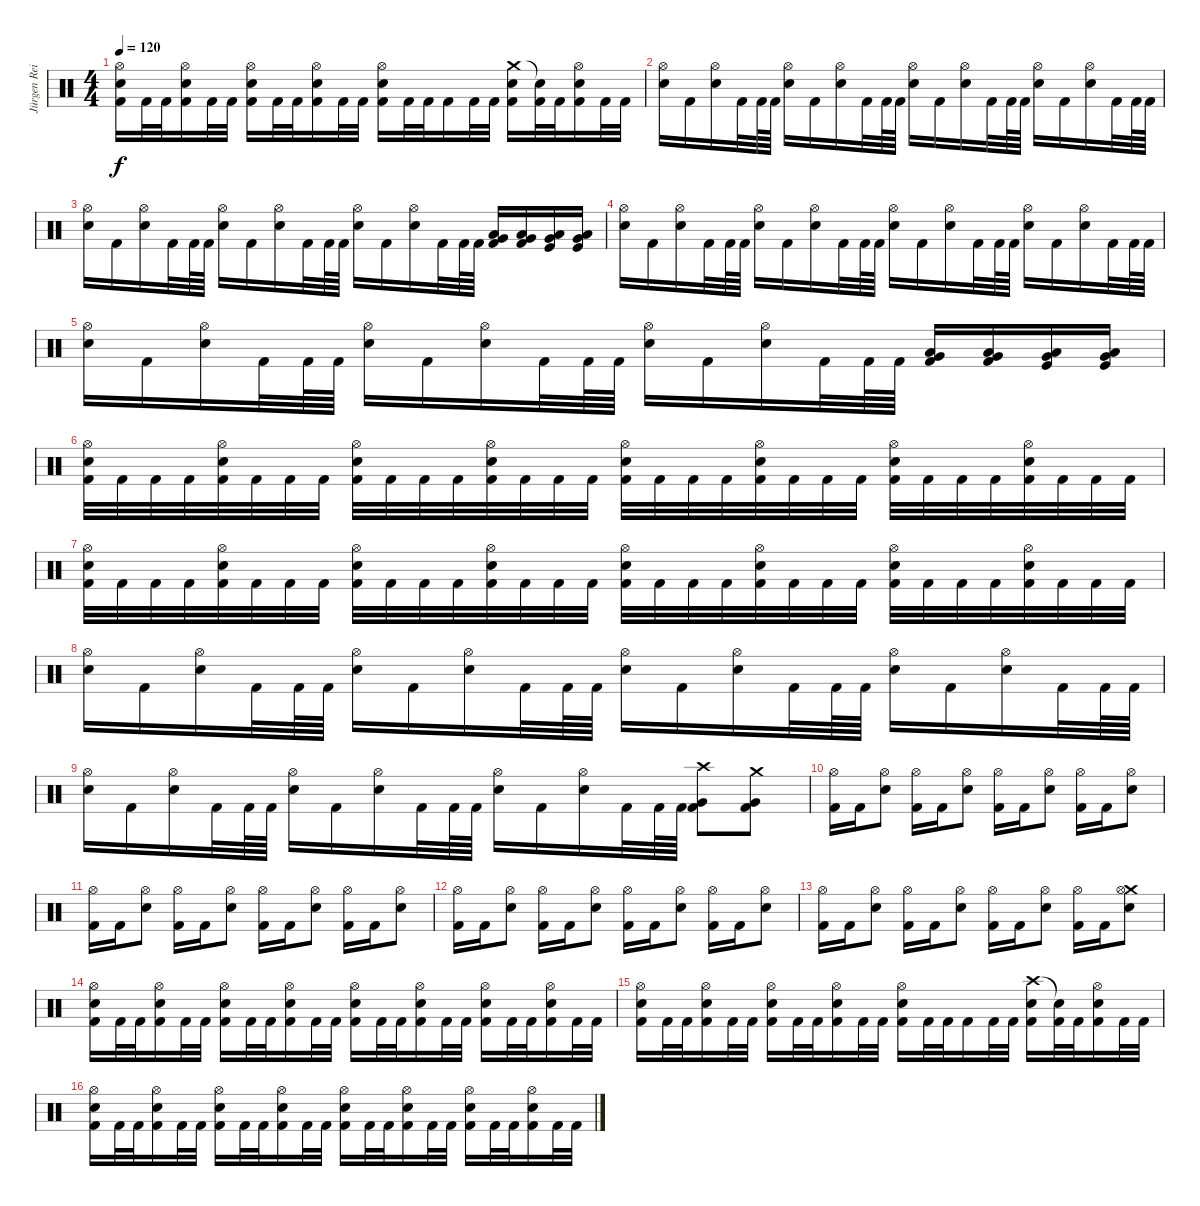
\track ("Jürgen Reil" "Jürgen Rei") {instrument percussion}
\staff {score}
\articulation defaults
\ts (4 4)
\tempo 120
\clef neutral
\ks c
("Hi-Hat (open)" "Electric Snare (hit)" "Kick (hit) 2").16{dy f} "Kick (hit) 2".32 "Kick (hit) 2".32 ("Hi-Hat (open)" "Electric Snare (hit)" "Kick (hit) 2").16 "Kick (hit) 2".32 "Kick (hit) 2".32 ("Hi-Hat (open)" "Electric Snare (hit)" "Kick (hit) 2").16 "Kick (hit) 2".32 "Kick (hit) 2".32 ("Hi-Hat (open)" "Electric Snare (hit)" "Kick (hit) 2").16 "Kick (hit) 2".32 "Kick (hit) 2".32 ("Hi-Hat (open)" "Electric Snare (hit)" "Kick (hit) 2").16 "Kick (hit) 2".32 "Kick (hit) 2".32 "Kick (hit) 2".16 "Kick (hit) 2".32 "Kick (hit) 2".32 ("Crash medium (hit)" "Electric Snare (hit)" "Kick (hit) 2").16 ("Snare (hit)"{t} "Kick (hit) 2").32 "Kick (hit) 2".32 ("Hi-Hat (open)" "Electric Snare (hit)" "Kick (hit) 2").16 "Kick (hit) 2".32 "Kick (hit) 2".32 |
("Hi-Hat (open)" "Electric Snare (hit)").16 "Kick (hit) 2".16 ("Hi-Hat (open)" "Electric Snare (hit)").16 "Kick (hit) 2".32 "Kick (hit) 2".64 "Kick (hit) 2".64 ("Hi-Hat (open)" "Electric Snare (hit)").16 "Kick (hit) 2".16 ("Hi-Hat (open)" "Electric Snare (hit)").16 "Kick (hit) 2".32 "Kick (hit) 2".64 "Kick (hit) 2".64 ("Hi-Hat (open)" "Electric Snare (hit)").16 "Kick (hit) 2".16 ("Hi-Hat (open)" "Electric Snare (hit)").16 "Kick (hit) 2".32 "Kick (hit) 2".64 "Kick (hit) 2".64 ("Hi-Hat (open)" "Electric Snare (hit)").16 "Kick (hit) 2".16 ("Hi-Hat (open)" "Electric Snare (hit)").16 "Kick (hit) 2".32 "Kick (hit) 2".64 "Kick (hit) 2".64 |
("Hi-Hat (open)" "Electric Snare (hit)").16 "Kick (hit) 2".16 ("Hi-Hat (open)" "Electric Snare (hit)").16 "Kick (hit) 2".32 "Kick (hit) 2".64 "Kick (hit) 2".64 ("Hi-Hat (open)" "Electric Snare (hit)").16 "Kick (hit) 2".16 ("Hi-Hat (open)" "Electric Snare (hit)").16 "Kick (hit) 2".32 "Kick (hit) 2".64 "Kick (hit) 2".64 ("Hi-Hat (open)" "Electric Snare (hit)").16 "Kick (hit) 2".16 ("Hi-Hat (open)" "Electric Snare (hit)").16 "Kick (hit) 2".32 "Kick (hit) 2".64 "Kick (hit) 2".64 ("Low Tom (hit)" "Very Low Tom (hit)" "Kick (hit) 2").16 ("Low Tom (hit)" "Very Low Tom (hit)" "Kick (hit) 2").16 ("Low Tom (hit)" "Very Low Tom (hit)" "Kick (hit)").16 ("Low Tom (hit)" "Very Low Tom (hit)" "Kick (hit)").16 |
("Hi-Hat (open)" "Electric Snare (hit)").16 "Kick (hit) 2".16 ("Hi-Hat (open)" "Electric Snare (hit)").16 "Kick (hit) 2".32 "Kick (hit) 2".64 "Kick (hit) 2".64 ("Hi-Hat (open)" "Electric Snare (hit)").16 "Kick (hit) 2".16 ("Hi-Hat (open)" "Electric Snare (hit)").16 "Kick (hit) 2".32 "Kick (hit) 2".64 "Kick (hit) 2".64 ("Hi-Hat (open)" "Electric Snare (hit)").16 "Kick (hit) 2".16 ("Hi-Hat (open)" "Electric Snare (hit)").16 "Kick (hit) 2".32 "Kick (hit) 2".64 "Kick (hit) 2".64 ("Hi-Hat (open)" "Electric Snare (hit)").16 "Kick (hit) 2".16 ("Hi-Hat (open)" "Electric Snare (hit)").16 "Kick (hit) 2".32 "Kick (hit) 2".64 "Kick (hit) 2".64 |
("Hi-Hat (open)" "Electric Snare (hit)").16 "Kick (hit) 2".16 ("Hi-Hat (open)" "Electric Snare (hit)").16 "Kick (hit) 2".32 "Kick (hit) 2".64 "Kick (hit) 2".64 ("Hi-Hat (open)" "Electric Snare (hit)").16 "Kick (hit) 2".16 ("Hi-Hat (open)" "Electric Snare (hit)").16 "Kick (hit) 2".32 "Kick (hit) 2".64 "Kick (hit) 2".64 ("Hi-Hat (open)" "Electric Snare (hit)").16 "Kick (hit) 2".16 ("Hi-Hat (open)" "Electric Snare (hit)").16 "Kick (hit) 2".32 "Kick (hit) 2".64 "Kick (hit) 2".64 ("Low Tom (hit)" "Very Low Tom (hit)" "Kick (hit) 2").16 ("Low Tom (hit)" "Very Low Tom (hit)" "Kick (hit) 2").16 ("Low Tom (hit)" "Very Low Tom (hit)" "Kick (hit)").16 ("Low Tom (hit)" "Very Low Tom (hit)" "Kick (hit)").16 |
("Hi-Hat (open)" "Electric Snare (hit)" "Kick (hit) 2").32 "Kick (hit) 2".32 "Kick (hit) 2".32 "Kick (hit) 2".32 ("Hi-Hat (open)" "Electric Snare (hit)" "Kick (hit) 2").32 "Kick (hit) 2".32 "Kick (hit) 2".32 "Kick (hit) 2".32 ("Hi-Hat (open)" "Electric Snare (hit)" "Kick (hit) 2").32 "Kick (hit) 2".32 "Kick (hit) 2".32 "Kick (hit) 2".32 ("Hi-Hat (open)" "Electric Snare (hit)" "Kick (hit) 2").32 "Kick (hit) 2".32 "Kick (hit) 2".32 "Kick (hit) 2".32 ("Hi-Hat (open)" "Electric Snare (hit)" "Kick (hit) 2").32 "Kick (hit) 2".32 "Kick (hit) 2".32 "Kick (hit) 2".32 ("Hi-Hat (open)" "Electric Snare (hit)" "Kick (hit) 2").32 "Kick (hit) 2".32 "Kick (hit) 2".32 "Kick (hit) 2".32 ("Hi-Hat (open)" "Electric Snare (hit)" "Kick (hit) 2").32 "Kick (hit) 2".32 "Kick (hit) 2".32 "Kick (hit) 2".32 ("Hi-Hat (open)" "Electric Snare (hit)" "Kick (hit) 2").32 "Kick (hit) 2".32 "Kick (hit) 2".32 "Kick (hit) 2".32 |
("Hi-Hat (open)" "Electric Snare (hit)" "Kick (hit) 2").32 "Kick (hit) 2".32 "Kick (hit) 2".32 "Kick (hit) 2".32 ("Hi-Hat (open)" "Electric Snare (hit)" "Kick (hit) 2").32 "Kick (hit) 2".32 "Kick (hit) 2".32 "Kick (hit) 2".32 ("Hi-Hat (open)" "Electric Snare (hit)" "Kick (hit) 2").32 "Kick (hit) 2".32 "Kick (hit) 2".32 "Kick (hit) 2".32 ("Hi-Hat (open)" "Electric Snare (hit)" "Kick (hit) 2").32 "Kick (hit) 2".32 "Kick (hit) 2".32 "Kick (hit) 2".32 ("Hi-Hat (open)" "Electric Snare (hit)" "Kick (hit) 2").32 "Kick (hit) 2".32 "Kick (hit) 2".32 "Kick (hit) 2".32 ("Hi-Hat (open)" "Electric Snare (hit)" "Kick (hit) 2").32 "Kick (hit) 2".32 "Kick (hit) 2".32 "Kick (hit) 2".32 ("Hi-Hat (open)" "Electric Snare (hit)" "Kick (hit) 2").32 "Kick (hit) 2".32 "Kick (hit) 2".32 "Kick (hit) 2".32 ("Hi-Hat (open)" "Electric Snare (hit)" "Kick (hit) 2").32 "Kick (hit) 2".32 "Kick (hit) 2".32 "Kick (hit) 2".32 |
("Hi-Hat (open)" "Electric Snare (hit)").16 "Kick (hit) 2".16 ("Hi-Hat (open)" "Electric Snare (hit)").16 "Kick (hit) 2".32 "Kick (hit) 2".64 "Kick (hit) 2".64 ("Hi-Hat (open)" "Electric Snare (hit)").16 "Kick (hit) 2".16 ("Hi-Hat (open)" "Electric Snare (hit)").16 "Kick (hit) 2".32 "Kick (hit) 2".64 "Kick (hit) 2".64 ("Hi-Hat (open)" "Electric Snare (hit)").16 "Kick (hit) 2".16 ("Hi-Hat (open)" "Electric Snare (hit)").16 "Kick (hit) 2".32 "Kick (hit) 2".64 "Kick (hit) 2".64 ("Hi-Hat (open)" "Electric Snare (hit)").16 "Kick (hit) 2".16 ("Hi-Hat (open)" "Electric Snare (hit)").16 "Kick (hit) 2".32 "Kick (hit) 2".64 "Kick (hit) 2".64 |
("Hi-Hat (open)" "Electric Snare (hit)").16 "Kick (hit) 2".16 ("Hi-Hat (open)" "Electric Snare (hit)").16 "Kick (hit) 2".32 "Kick (hit) 2".64 "Kick (hit) 2".64 ("Hi-Hat (open)" "Electric Snare (hit)").16 "Kick (hit) 2".16 ("Hi-Hat (open)" "Electric Snare (hit)").16 "Kick (hit) 2".32 "Kick (hit) 2".64 "Kick (hit) 2".64 ("Hi-Hat (open)" "Electric Snare (hit)").16 "Kick (hit) 2".16 ("Hi-Hat (open)" "Electric Snare (hit)").16 "Kick (hit) 2".32 "Kick (hit) 2".64 "Kick (hit) 2".64 ("Crash high (hit)" "Very Low Tom (hit)" "Kick (hit) 2").8 ("Crash medium (hit)" "Very Low Tom (hit)" "Kick (hit) 2").8 |
("Hi-Hat (open)" "Kick (hit) 2").16 "Kick (hit) 2".16 ("Hi-Hat (open)" "Electric Snare (hit)").8 ("Hi-Hat (open)" "Kick (hit) 2").16 "Kick (hit) 2".16 ("Hi-Hat (open)" "Electric Snare (hit)").8 ("Hi-Hat (open)" "Kick (hit) 2").16 "Kick (hit) 2".16 ("Hi-Hat (open)" "Electric Snare (hit)").8 ("Hi-Hat (open)" "Kick (hit) 2").16 "Kick (hit) 2".16 ("Hi-Hat (open)" "Electric Snare (hit)").8 |
("Hi-Hat (open)" "Kick (hit) 2").16 "Kick (hit) 2".16 ("Hi-Hat (open)" "Electric Snare (hit)").8 ("Hi-Hat (open)" "Kick (hit) 2").16 "Kick (hit) 2".16 ("Hi-Hat (open)" "Electric Snare (hit)").8 ("Hi-Hat (open)" "Kick (hit) 2").16 "Kick (hit) 2".16 ("Hi-Hat (open)" "Electric Snare (hit)").8 ("Hi-Hat (open)" "Kick (hit) 2").16 "Kick (hit) 2".16 ("Hi-Hat (open)" "Electric Snare (hit)").8 |
("Hi-Hat (open)" "Kick (hit) 2").16 "Kick (hit) 2".16 ("Hi-Hat (open)" "Electric Snare (hit)").8 ("Hi-Hat (open)" "Kick (hit) 2").16 "Kick (hit) 2".16 ("Hi-Hat (open)" "Electric Snare (hit)").8 ("Hi-Hat (open)" "Kick (hit) 2").16 "Kick (hit) 2".16 ("Hi-Hat (open)" "Electric Snare (hit)").8 ("Hi-Hat (open)" "Kick (hit) 2").16 "Kick (hit) 2".16 ("Hi-Hat (open)" "Electric Snare (hit)").8 |
("Hi-Hat (open)" "Kick (hit) 2").16 "Kick (hit) 2".16 ("Hi-Hat (open)" "Electric Snare (hit)").8 ("Hi-Hat (open)" "Kick (hit) 2").16 "Kick (hit) 2".16 ("Hi-Hat (open)" "Electric Snare (hit)").8 ("Hi-Hat (open)" "Kick (hit) 2").16 "Kick (hit) 2".16 ("Hi-Hat (open)" "Electric Snare (hit)").8 ("Hi-Hat (open)" "Kick (hit) 2").16 "Kick (hit) 2".16 ("Crash medium (hit)" "Hi-Hat (open)" "Electric Snare (hit)").8 |
("Hi-Hat (open)" "Electric Snare (hit)" "Kick (hit) 2").16 "Kick (hit) 2".32 "Kick (hit) 2".32 ("Hi-Hat (open)" "Electric Snare (hit)" "Kick (hit) 2").16 "Kick (hit) 2".32 "Kick (hit) 2".32 ("Hi-Hat (open)" "Electric Snare (hit)" "Kick (hit) 2").16 "Kick (hit) 2".32 "Kick (hit) 2".32 ("Hi-Hat (open)" "Electric Snare (hit)" "Kick (hit) 2").16 "Kick (hit) 2".32 "Kick (hit) 2".32 ("Hi-Hat (open)" "Electric Snare (hit)" "Kick (hit) 2").16 "Kick (hit) 2".32 "Kick (hit) 2".32 ("Hi-Hat (open)" "Electric Snare (hit)" "Kick (hit) 2").16 "Kick (hit) 2".32 "Kick (hit) 2".32 ("Hi-Hat (open)" "Electric Snare (hit)" "Kick (hit) 2").16 "Kick (hit) 2".32 "Kick (hit) 2".32 ("Hi-Hat (open)" "Electric Snare (hit)" "Kick (hit) 2").16 "Kick (hit) 2".32 "Kick (hit) 2".32 |
("Hi-Hat (open)" "Electric Snare (hit)" "Kick (hit) 2").16 "Kick (hit) 2".32 "Kick (hit) 2".32 ("Hi-Hat (open)" "Electric Snare (hit)" "Kick (hit) 2").16 "Kick (hit) 2".32 "Kick (hit) 2".32 ("Hi-Hat (open)" "Electric Snare (hit)" "Kick (hit) 2").16 "Kick (hit) 2".32 "Kick (hit) 2".32 ("Hi-Hat (open)" "Electric Snare (hit)" "Kick (hit) 2").16 "Kick (hit) 2".32 "Kick (hit) 2".32 ("Hi-Hat (open)" "Electric Snare (hit)" "Kick (hit) 2").16 "Kick (hit) 2".32 "Kick (hit) 2".32 "Kick (hit) 2".16 "Kick (hit) 2".32 "Kick (hit) 2".32 ("Crash high (hit)" "Electric Snare (hit)" "Kick (hit) 2").16 ("Snare (hit)"{t} "Kick (hit) 2").32 "Kick (hit) 2".32 ("Hi-Hat (open)" "Electric Snare (hit)" "Kick (hit) 2").16 "Kick (hit) 2".32 "Kick (hit) 2".32 |
("Hi-Hat (open)" "Electric Snare (hit)" "Kick (hit) 2").16 "Kick (hit) 2".32 "Kick (hit) 2".32 ("Hi-Hat (open)" "Electric Snare (hit)" "Kick (hit) 2").16 "Kick (hit) 2".32 "Kick (hit) 2".32 ("Hi-Hat (open)" "Electric Snare (hit)" "Kick (hit) 2").16 "Kick (hit) 2".32 "Kick (hit) 2".32 ("Hi-Hat (open)" "Electric Snare (hit)" "Kick (hit) 2").16 "Kick (hit) 2".32 "Kick (hit) 2".32 ("Hi-Hat (open)" "Electric Snare (hit)" "Kick (hit) 2").16 "Kick (hit) 2".32 "Kick (hit) 2".32 ("Hi-Hat (open)" "Electric Snare (hit)" "Kick (hit) 2").16 "Kick (hit) 2".32 "Kick (hit) 2".32 ("Hi-Hat (open)" "Electric Snare (hit)" "Kick (hit) 2").16 "Kick (hit) 2".32 "Kick (hit) 2".32 ("Hi-Hat (open)" "Electric Snare (hit)" "Kick (hit) 2").16 "Kick (hit) 2".32 "Kick (hit) 2".32
